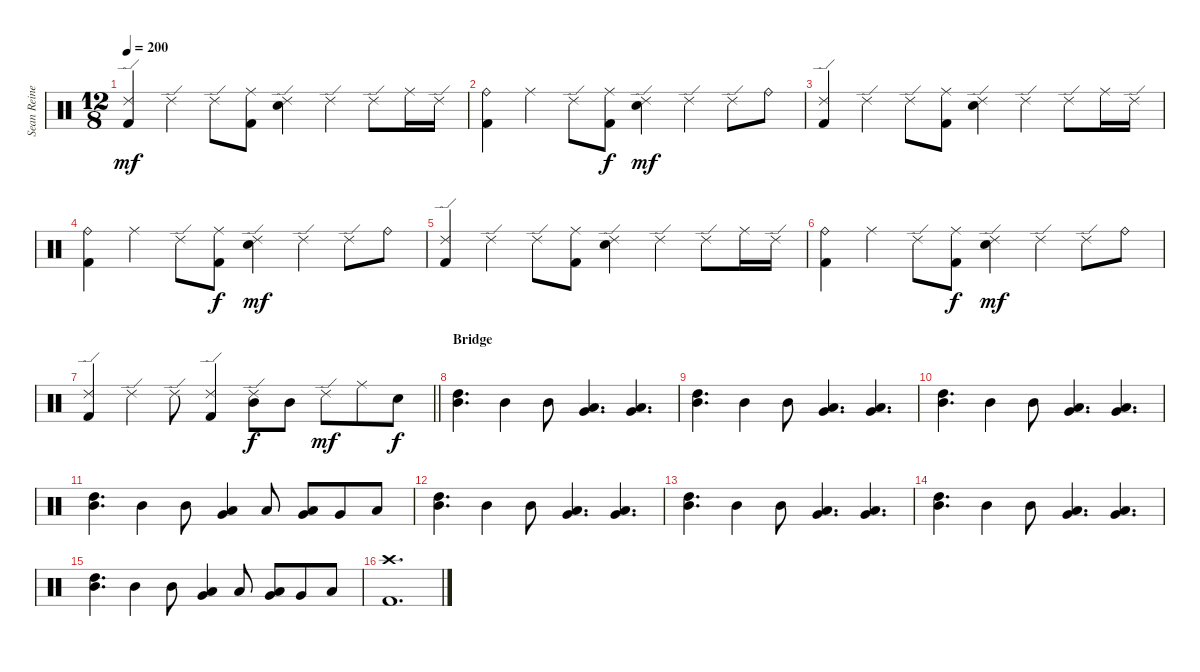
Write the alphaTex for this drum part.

\track ("Sean Reinert" "Sean Reine") {instrument percussion}
\staff {score}
\articulation defaults
\ts (12 8)
\tempo 200
\clef neutral
\ks c
("Ride (edge) 2" "Kick (hit) 2").4{dy mf} "Ride (edge) 2".4 "Ride (edge) 2".8 ("Ride (middle)" "Kick (hit) 2").8 ("Ride (edge) 2" "Snare (hit) 2").4 "Ride (edge) 2".4 "Ride (edge) 2".8 "Ride (middle)".16 "Ride (edge) 2".16 |
("Ride (bell)" "Kick (hit) 2").4 "Ride (middle)".4 "Ride (edge) 2".8 ("Ride (middle)" "Kick (hit) 2").8{dy f} ("Ride (edge) 2" "Snare (hit) 2").4{dy mf} "Ride (edge) 2".4 "Ride (edge) 2".8 "Ride (bell)".8 |
("Ride (edge) 2" "Kick (hit) 2").4 "Ride (edge) 2".4 "Ride (edge) 2".8 ("Ride (middle)" "Kick (hit) 2").8 ("Ride (edge) 2" "Snare (hit) 2").4 "Ride (edge) 2".4 "Ride (edge) 2".8 "Ride (middle)".16 "Ride (edge) 2".16 |
("Ride (bell)" "Kick (hit) 2").4 "Ride (middle)".4 "Ride (edge) 2".8 ("Ride (middle)" "Kick (hit) 2").8{dy f} ("Ride (edge) 2" "Snare (hit) 2").4{dy mf} "Ride (edge) 2".4 "Ride (edge) 2".8 "Ride (bell)".8 |
("Ride (edge) 2" "Kick (hit) 2").4 "Ride (edge) 2".4 "Ride (edge) 2".8 ("Ride (middle)" "Kick (hit) 2").8 ("Ride (edge) 2" "Snare (hit) 2").4 "Ride (edge) 2".4 "Ride (edge) 2".8 "Ride (middle)".16 "Ride (edge) 2".16 |
("Ride (bell)" "Kick (hit) 2").4 "Ride (middle)".4 "Ride (edge) 2".8 ("Ride (middle)" "Kick (hit) 2").8{dy f} ("Ride (edge) 2" "Snare (hit) 2").4{dy mf} "Ride (edge) 2".4 "Ride (edge) 2".8 "Ride (bell)".8 |
\barLineRight lightlight
("Ride (edge) 2" "Kick (hit) 2").4 "Ride (edge) 2".4 "Ride (edge) 2".8 ("Ride (edge) 2" "Kick (hit) 2").4 ("Ride (edge) 2" "Mid Tom (hit)").8{dy f} "Mid Tom (hit)".8 "Ride (edge) 2".8{dy mf} "Ride (middle)".8 "Snare (hit) 2".8{dy f} |
\section ("" "Bridge")
("High Tom (hit)" "Mid Tom (hit)").4{d} "Mid Tom (hit)".4 "Mid Tom (hit)".8 ("Low Tom (hit)" "Very Low Tom (hit)").4{d} ("Very Low Tom (hit)" "Low Floor Tom (hit)").4{d} |
("High Tom (hit)" "Mid Tom (hit)").4{d} "Mid Tom (hit)".4 "Mid Tom (hit)".8 ("Low Tom (hit)" "Very Low Tom (hit)").4{d} ("Very Low Tom (hit)" "Low Floor Tom (hit)").4{d} |
("High Tom (hit)" "Mid Tom (hit)").4{d} "Mid Tom (hit)".4 "Mid Tom (hit)".8 ("Low Tom (hit)" "Very Low Tom (hit)").4{d} ("Very Low Tom (hit)" "Low Floor Tom (hit)").4{d} |
("High Tom (hit)" "Mid Tom (hit)").4{d} "Mid Tom (hit)".4 "Mid Tom (hit)".8 ("Low Tom (hit)" "Very Low Tom (hit)").4 "Low Tom (hit)".8 ("Low Floor Tom (hit)" "Very Low Tom (hit)").8 "Very Low Tom (hit)".8 "Low Floor Tom (hit)".8 |
("High Tom (hit)" "Mid Tom (hit)").4{d} "Mid Tom (hit)".4 "Mid Tom (hit)".8 ("Low Tom (hit)" "Very Low Tom (hit)").4{d} ("Very Low Tom (hit)" "Low Floor Tom (hit)").4{d} |
("High Tom (hit)" "Mid Tom (hit)").4{d} "Mid Tom (hit)".4 "Mid Tom (hit)".8 ("Low Tom (hit)" "Very Low Tom (hit)").4{d} ("Very Low Tom (hit)" "Low Floor Tom (hit)").4{d} |
("High Tom (hit)" "Mid Tom (hit)").4{d} "Mid Tom (hit)".4 "Mid Tom (hit)".8 ("Low Tom (hit)" "Very Low Tom (hit)").4{d} ("Very Low Tom (hit)" "Low Floor Tom (hit)").4{d} |
("High Tom (hit)" "Mid Tom (hit)").4{d} "Mid Tom (hit)".4 "Mid Tom (hit)".8 ("Low Tom (hit)" "Very Low Tom (hit)").4 "Low Tom (hit)".8 ("Low Floor Tom (hit)" "Very Low Tom (hit)").8 "Very Low Tom (hit)".8 "Low Floor Tom (hit)".8 |
("Crash high (hit)" "Kick (hit) 2").1{d}
